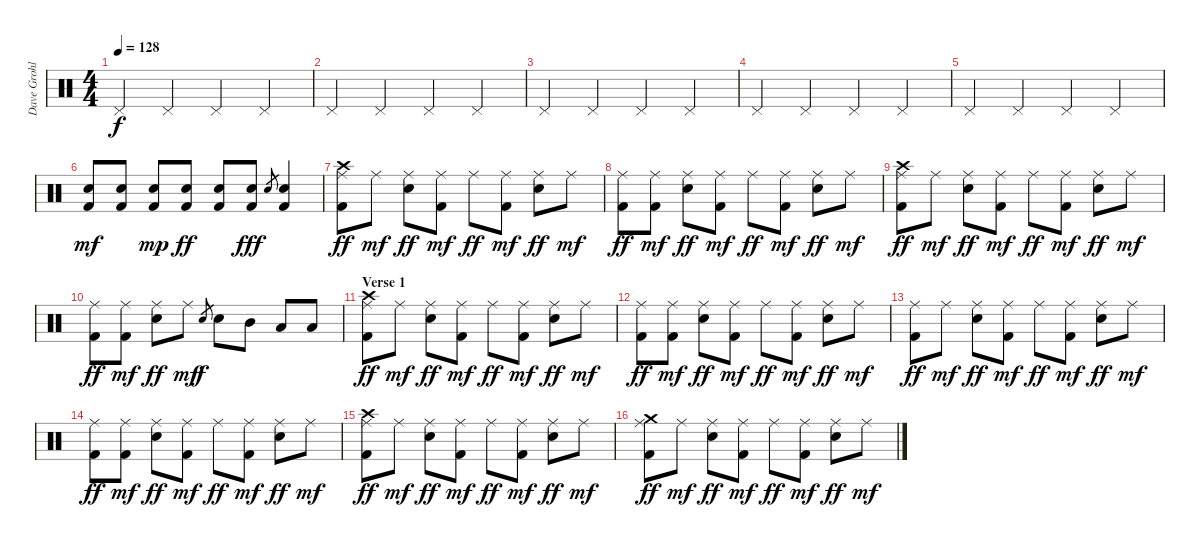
\track ("Dave Grohl" "Dave Grohl") {instrument percussion}
\staff {score}
\articulation defaults
\ts (4 4)
\tempo 128
\clef neutral
\ks c "Pedal Hi-Hat (hit)".4{dy f} "Pedal Hi-Hat (hit)".4 "Pedal Hi-Hat (hit)".4 "Pedal Hi-Hat (hit)".4
|
"Pedal Hi-Hat (hit)".4 "Pedal Hi-Hat (hit)".4 "Pedal Hi-Hat (hit)".4 "Pedal Hi-Hat (hit)".4 |
"Pedal Hi-Hat (hit)".4 "Pedal Hi-Hat (hit)".4 "Pedal Hi-Hat (hit)".4 "Pedal Hi-Hat (hit)".4 |
"Pedal Hi-Hat (hit)".4 "Pedal Hi-Hat (hit)".4 "Pedal Hi-Hat (hit)".4 "Pedal Hi-Hat (hit)".4 |
"Pedal Hi-Hat (hit)".4 "Pedal Hi-Hat (hit)".4 "Pedal Hi-Hat (hit)".4 "Pedal Hi-Hat (hit)".4 |
("Snare (hit) 2" "Kick (hit) 2").8{dy mf} ("Snare (hit) 2" "Kick (hit) 2").8 ("Snare (hit) 2" "Kick (hit) 2").8{dy mp} ("Snare (hit) 2" "Kick (hit) 2").8{dy ff} ("Snare (hit) 2" "Kick (hit) 2").8 ("Snare (hit) 2" "Kick (hit) 2").8{dy fff} "Snare (hit) 2".8{gr} ("Snare (hit) 2" "Kick (hit) 2").4 |
("Crash high (hit)" "Ride (middle)" "Kick (hit) 2").8{dy ff} "Ride (middle)".8{dy mf} ("Ride (middle)" "Snare (hit) 2").8{dy ff} ("Ride (middle)" "Kick (hit) 2").8{dy mf} "Ride (middle)".8{dy ff} ("Ride (middle)" "Kick (hit) 2").8{dy mf} ("Ride (middle)" "Snare (hit) 2").8{dy ff} "Ride (middle)".8{dy mf} |
("Ride (middle)" "Kick (hit) 2").8{dy ff} ("Ride (middle)" "Kick (hit) 2").8{dy mf} ("Ride (middle)" "Snare (hit) 2").8{dy ff} ("Ride (middle)" "Kick (hit) 2").8{dy mf} "Ride (middle)".8{dy ff} ("Ride (middle)" "Kick (hit) 2").8{dy mf} ("Ride (middle)" "Snare (hit) 2").8{dy ff} "Ride (middle)".8{dy mf} |
("Crash high (hit)" "Ride (middle)" "Kick (hit) 2").8{dy ff} "Ride (middle)".8{dy mf} ("Ride (middle)" "Snare (hit) 2").8{dy ff} ("Ride (middle)" "Kick (hit) 2").8{dy mf} "Ride (middle)".8{dy ff} ("Ride (middle)" "Kick (hit) 2").8{dy mf} ("Ride (middle)" "Snare (hit) 2").8{dy ff} "Ride (middle)".8{dy mf} |
("Ride (middle)" "Kick (hit) 2").8{dy ff} ("Ride (middle)" "Kick (hit) 2").8{dy mf} ("Ride (middle)" "Snare (hit) 2").8{dy ff} "Ride (middle)".8{dy mf} "Snare (hit) 2".8{gr dy f} "Snare (hit) 2".8 "Mid Tom (hit)".8 "Low Tom (hit)".8 "Low Floor Tom (hit)".8 |
\section ("" "Verse 1")
("Crash high (hit)" "Ride (middle)" "Kick (hit) 2").8{dy ff} "Ride (middle)".8{dy mf} ("Ride (middle)" "Snare (hit) 2").8{dy ff} ("Ride (middle)" "Kick (hit) 2").8{dy mf} "Ride (middle)".8{dy ff} ("Ride (middle)" "Kick (hit) 2").8{dy mf} ("Ride (middle)" "Snare (hit) 2").8{dy ff} "Ride (middle)".8{dy mf} |
("Ride (middle)" "Kick (hit) 2").8{dy ff} ("Ride (middle)" "Kick (hit) 2").8{dy mf} ("Ride (middle)" "Snare (hit) 2").8{dy ff} ("Ride (middle)" "Kick (hit) 2").8{dy mf} "Ride (middle)".8{dy ff} ("Ride (middle)" "Kick (hit) 2").8{dy mf} ("Ride (middle)" "Snare (hit) 2").8{dy ff} "Ride (middle)".8{dy mf} |
("Ride (middle)" "Kick (hit) 2").8{dy ff} "Ride (middle)".8{dy mf} ("Ride (middle)" "Snare (hit) 2").8{dy ff} ("Ride (middle)" "Kick (hit) 2").8{dy mf} "Ride (middle)".8{dy ff} ("Ride (middle)" "Kick (hit) 2").8{dy mf} ("Ride (middle)" "Snare (hit) 2").8{dy ff} "Ride (middle)".8{dy mf} |
("Ride (middle)" "Kick (hit) 2").8{dy ff} ("Ride (middle)" "Kick (hit) 2").8{dy mf} ("Ride (middle)" "Snare (hit) 2").8{dy ff} ("Ride (middle)" "Kick (hit) 2").8{dy mf} "Ride (middle)".8{dy ff} ("Ride (middle)" "Kick (hit) 2").8{dy mf} ("Ride (middle)" "Snare (hit) 2").8{dy ff} "Ride (middle)".8{dy mf} |
("Crash high (hit)" "Ride (middle)" "Kick (hit) 2").8{dy ff} "Ride (middle)".8{dy mf} ("Ride (middle)" "Snare (hit) 2").8{dy ff} ("Ride (middle)" "Kick (hit) 2").8{dy mf} "Ride (middle)".8{dy ff} ("Ride (middle)" "Kick (hit) 2").8{dy mf} ("Ride (middle)" "Snare (hit) 2").8{dy ff} "Ride (middle)".8{dy mf} |
("Crash medium (hit)" "Ride (middle)" "Kick (hit) 2").8{dy ff} "Ride (middle)".8{dy mf} ("Ride (middle)" "Snare (hit) 2").8{dy ff} ("Ride (middle)" "Kick (hit) 2").8{dy mf} "Ride (middle)".8{dy ff} ("Ride (middle)" "Kick (hit) 2").8{dy mf} ("Ride (middle)" "Snare (hit) 2").8{dy ff} "Ride (middle)".8{dy mf}
